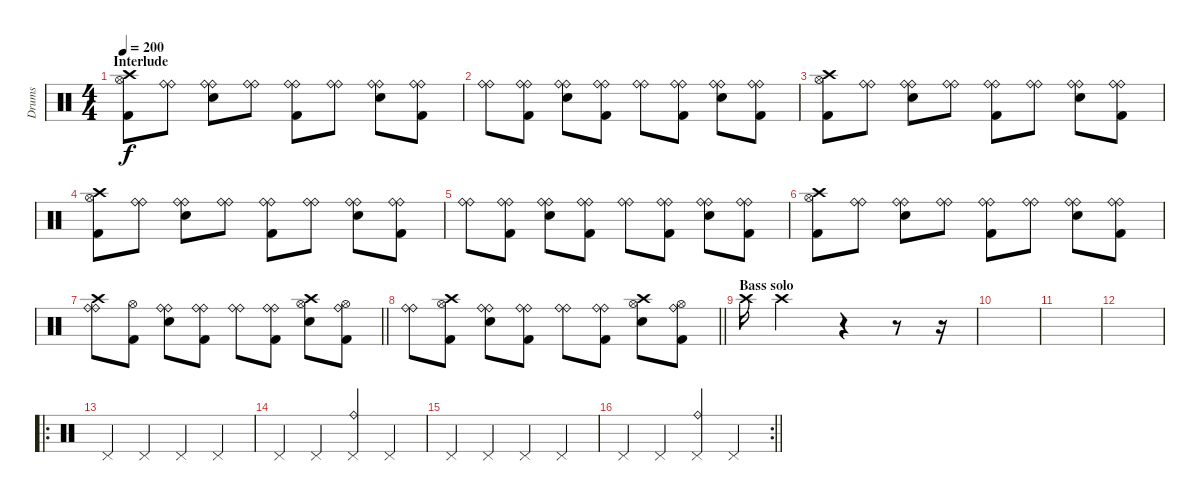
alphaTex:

\track ("Drums" "Drums") {instrument percussion}
\staff {score}
\articulation defaults
\ts (4 4)
\section ("" "Interlude")
\tempo 200
\clef neutral
\ks c
("Crash high (hit)" "Hi-Hat (open)" "Kick (hit) 2").8{dy f} ("Ride (bell)" "Ride (bell)").8 ("Ride (bell)" "Ride (bell)" "Electric Snare (hit)").8 ("Ride (bell)" "Ride (bell)").8 ("Ride (bell)" "Ride (bell)" "Kick (hit) 2").8 ("Ride (bell)" "Ride (bell)").8 ("Ride (bell)" "Ride (bell)" "Electric Snare (hit)").8 ("Ride (bell)" "Ride (bell)" "Kick (hit) 2").8 |
("Ride (bell)" "Ride (bell)").8 ("Ride (bell)" "Ride (bell)" "Kick (hit) 2").8 ("Ride (bell)" "Ride (bell)" "Electric Snare (hit)").8 ("Ride (bell)" "Ride (bell)" "Kick (hit) 2").8 ("Ride (bell)" "Ride (bell)").8 ("Ride (bell)" "Ride (bell)" "Kick (hit) 2").8 ("Ride (bell)" "Ride (bell)" "Electric Snare (hit)").8 ("Ride (bell)" "Ride (bell)" "Kick (hit) 2").8 |
("Crash high (hit)" "Hi-Hat (open)" "Kick (hit) 2").8 ("Ride (bell)" "Ride (bell)").8 ("Ride (bell)" "Ride (bell)" "Electric Snare (hit)").8 ("Ride (bell)" "Ride (bell)").8 ("Ride (bell)" "Ride (bell)" "Kick (hit) 2").8 ("Ride (bell)" "Ride (bell)").8 ("Ride (bell)" "Ride (bell)" "Electric Snare (hit)").8 ("Ride (bell)" "Ride (bell)" "Kick (hit) 2").8 |
("Crash high (hit)" "Hi-Hat (open)" "Kick (hit) 2").8 ("Ride (bell)" "Ride (bell)").8 ("Ride (bell)" "Ride (bell)" "Electric Snare (hit)").8 ("Ride (bell)" "Ride (bell)").8 ("Ride (bell)" "Ride (bell)" "Kick (hit) 2").8 ("Ride (bell)" "Ride (bell)").8 ("Ride (bell)" "Ride (bell)" "Electric Snare (hit)").8 ("Ride (bell)" "Ride (bell)" "Kick (hit) 2").8 |
("Ride (bell)" "Ride (bell)").8 ("Ride (bell)" "Ride (bell)" "Kick (hit) 2").8 ("Ride (bell)" "Ride (bell)" "Electric Snare (hit)").8 ("Ride (bell)" "Ride (bell)" "Kick (hit) 2").8 ("Ride (bell)" "Ride (bell)").8 ("Ride (bell)" "Ride (bell)" "Kick (hit) 2").8 ("Ride (bell)" "Ride (bell)" "Electric Snare (hit)").8 ("Ride (bell)" "Ride (bell)" "Kick (hit) 2").8 |
("Crash high (hit)" "Hi-Hat (open)" "Kick (hit) 2").8 ("Ride (bell)" "Ride (bell)").8 ("Ride (bell)" "Ride (bell)" "Electric Snare (hit)").8 ("Ride (bell)" "Ride (bell)").8 ("Ride (bell)" "Ride (bell)" "Kick (hit) 2").8 ("Ride (bell)" "Ride (bell)").8 ("Ride (bell)" "Ride (bell)" "Electric Snare (hit)").8 ("Ride (bell)" "Ride (bell)" "Kick (hit) 2").8 |
\barLineRight lightlight
("Ride (bell)" "Ride (bell)" "Crash high (hit)").8 ("Hi-Hat (open)" "Kick (hit) 2").8 ("Ride (bell)" "Ride (bell)" "Electric Snare (hit)").8 ("Ride (bell)" "Ride (bell)" "Kick (hit) 2").8 ("Ride (bell)" "Ride (bell)").8 ("Ride (bell)" "Ride (bell)" "Kick (hit) 2").8 ("Crash high (hit)" "Hi-Hat (open)" "Electric Snare (hit)").8 ("Ride (bell)" "Hi-Hat (open)" "Kick (hit) 2").8 |
\barLineRight lightlight
("Ride (bell)" "Ride (bell)").8 ("Crash high (hit)" "Hi-Hat (open)" "Kick (hit) 2").8 ("Ride (bell)" "Ride (bell)" "Electric Snare (hit)").8 ("Ride (bell)" "Ride (bell)" "Kick (hit) 2").8 ("Ride (bell)" "Ride (bell)").8 ("Ride (bell)" "Ride (bell)" "Kick (hit) 2").8 ("Crash high (hit)" "Hi-Hat (open)" "Electric Snare (hit)").8 ("Ride (bell)" "Hi-Hat (open)" "Kick (hit) 2").8 |
\section ("" "Bass solo")
"Crash high (hit)".16 "Crash high (hit)".2 r.4 r.8 r.16 |
|
|
|
\ro "Pedal Hi-Hat (hit)".4 "Pedal Hi-Hat (hit)".4 "Pedal Hi-Hat (hit)".4 "Pedal Hi-Hat (hit)".4
|
"Pedal Hi-Hat (hit)".4 "Pedal Hi-Hat (hit)".4 ("Ride (bell)" "Pedal Hi-Hat (hit)").4 "Pedal Hi-Hat (hit)".4 |
"Pedal Hi-Hat (hit)".4 "Pedal Hi-Hat (hit)".4 "Pedal Hi-Hat (hit)".4 "Pedal Hi-Hat (hit)".4 |
\rc 2
\barLineRight lightlight "Pedal Hi-Hat (hit)".4 "Pedal Hi-Hat (hit)".4
("Ride (bell)" "Pedal Hi-Hat (hit)").4 "Pedal Hi-Hat (hit)".4
